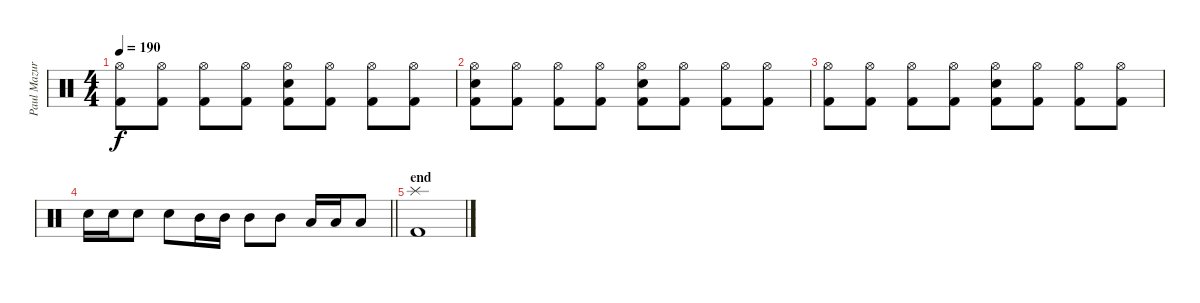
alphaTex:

\track ("Paul Mazurkiewicz" "Paul Mazur") {instrument percussion}
\staff {score}
\articulation defaults
\ts (4 4)
\tempo 190
\clef neutral
\ks c
("Hi-Hat (open)" "Kick (hit) 2").8{dy f} ("Hi-Hat (open)" "Kick (hit) 2").8 ("Hi-Hat (open)" "Kick (hit) 2").8 ("Hi-Hat (open)" "Kick (hit) 2").8 ("Hi-Hat (open)" "Snare (hit) 2" "Kick (hit) 2").8 ("Hi-Hat (open)" "Kick (hit) 2").8 ("Hi-Hat (open)" "Kick (hit) 2").8 ("Hi-Hat (open)" "Kick (hit) 2").8 |
("Hi-Hat (open)" "Snare (hit) 2" "Kick (hit) 2").8 ("Hi-Hat (open)" "Kick (hit) 2").8 ("Hi-Hat (open)" "Kick (hit) 2").8 ("Hi-Hat (open)" "Kick (hit) 2").8 ("Hi-Hat (open)" "Snare (hit) 2" "Kick (hit) 2").8 ("Hi-Hat (open)" "Kick (hit) 2").8 ("Hi-Hat (open)" "Kick (hit) 2").8 ("Hi-Hat (open)" "Kick (hit) 2").8 |
("Hi-Hat (open)" "Kick (hit) 2").8 ("Hi-Hat (open)" "Kick (hit) 2").8 ("Hi-Hat (open)" "Kick (hit) 2").8 ("Hi-Hat (open)" "Kick (hit) 2").8 ("Hi-Hat (open)" "Snare (hit) 2" "Kick (hit) 2").8 ("Hi-Hat (open)" "Kick (hit) 2").8 ("Hi-Hat (open)" "Kick (hit) 2").8 ("Hi-Hat (open)" "Kick (hit) 2").8 |
\barLineRight lightlight "Snare (hit) 2".16 "Snare (hit) 2".16 "Snare (hit) 2".8 "Snare (hit) 2".8 "Mid Tom (hit)".16 "Mid Tom (hit)".16 "Mid Tom (hit)".8 "Mid Tom (hit)".8 "Low Tom (hit)".16 "Low Tom (hit)".16 "Low Tom (hit)".8
|
\section ("" "end")
("Splash (hit)" "Kick (hit) 2").1
